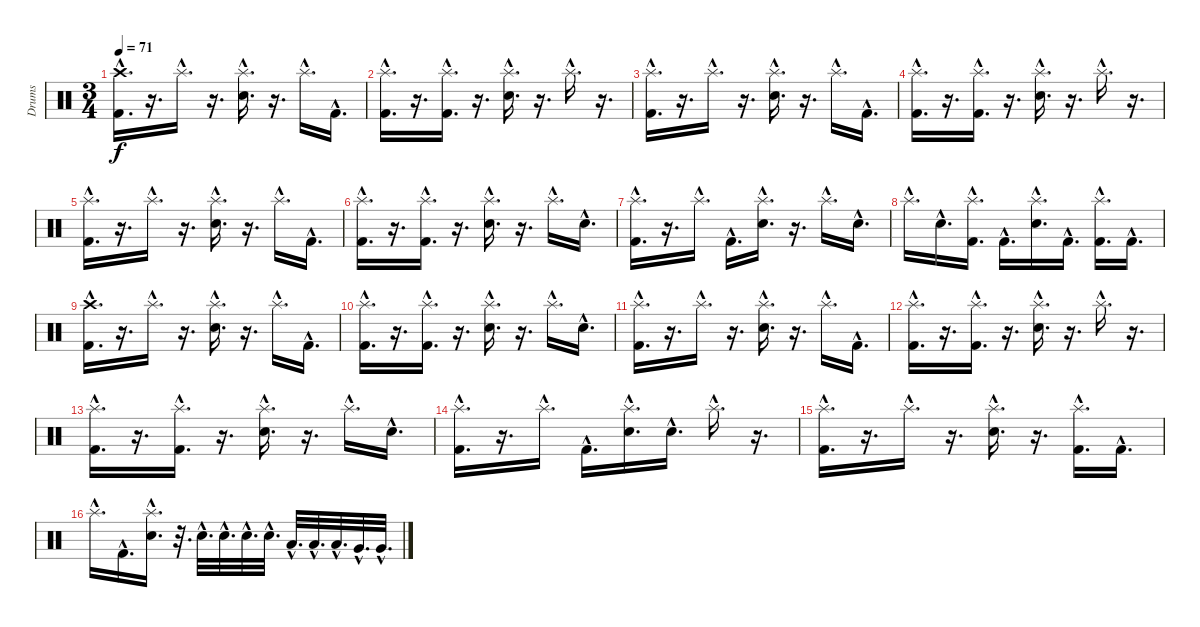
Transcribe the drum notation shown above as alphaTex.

\track ("Drums" "Drums") {instrument percussion}
\staff {score}
\articulation defaults
\ts (3 4)
\tempo 71
\clef neutral
\ks c
("Crash high (hit)"{hac} "Kick (hit) 2"{hac}).16{d dy f} r.16{d} "Splash (hit)"{hac}.16{d} r.16{d} ("Splash (hit)"{hac} "Snare (hit) 2"{hac}).16{d} r.16{d} "Splash (hit)"{hac}.16{d} "Kick (hit) 2"{hac}.16{d} |
("Splash (hit)"{hac} "Kick (hit) 2"{hac}).16{d} r.16{d} ("Splash (hit)"{hac} "Kick (hit) 2"{hac}).16{d} r.16{d} ("Splash (hit)"{hac} "Snare (hit) 2"{hac}).16{d} r.16{d} "Splash (hit)"{hac}.16{d} r.16{d} |
("Splash (hit)"{hac} "Kick (hit) 2"{hac}).16{d} r.16{d} "Splash (hit)"{hac}.16{d} r.16{d} ("Splash (hit)"{hac} "Snare (hit) 2"{hac}).16{d} r.16{d} "Splash (hit)"{hac}.16{d} "Kick (hit) 2"{hac}.16{d} |
("Splash (hit)"{hac} "Kick (hit) 2"{hac}).16{d} r.16{d} ("Splash (hit)"{hac} "Kick (hit) 2"{hac}).16{d} r.16{d} ("Splash (hit)"{hac} "Snare (hit) 2"{hac}).16{d} r.16{d} "Splash (hit)"{hac}.16{d} r.16{d} |
("Splash (hit)"{hac} "Kick (hit) 2"{hac}).16{d} r.16{d} "Splash (hit)"{hac}.16{d} r.16{d} ("Splash (hit)"{hac} "Snare (hit) 2"{hac}).16{d} r.16{d} "Splash (hit)"{hac}.16{d} "Kick (hit) 2"{hac}.16{d} |
("Splash (hit)"{hac} "Kick (hit) 2"{hac}).16{d} r.16{d} ("Splash (hit)"{hac} "Kick (hit) 2"{hac}).16{d} r.16{d} ("Splash (hit)"{hac} "Snare (hit) 2"{hac}).16{d} r.16{d} "Splash (hit)"{hac}.16{d} "Snare (hit) 2"{hac}.16{d} |
("Splash (hit)"{hac} "Kick (hit) 2"{hac}).16{d} r.16{d} "Splash (hit)"{hac}.16{d} "Kick (hit) 2"{hac}.16{d} ("Splash (hit)"{hac} "Snare (hit) 2"{hac}).16{d} r.16{d} "Splash (hit)"{hac}.16{d} "Snare (hit) 2"{hac}.16{d} |
"Splash (hit)"{hac}.16{d} "Snare (hit) 2"{hac}.16{d} ("Splash (hit)"{hac} "Kick (hit) 2"{hac}).16{d} "Kick (hit) 2"{hac}.16{d} ("Splash (hit)"{hac} "Snare (hit) 2"{hac}).16{d} "Kick (hit) 2"{hac}.16{d} ("Splash (hit)"{hac} "Kick (hit) 2"{hac}).16{d} "Kick (hit) 2"{hac}.16{d} |
("Crash high (hit)"{hac} "Kick (hit) 2"{hac}).16{d} r.16{d} "Splash (hit)"{hac}.16{d} r.16{d} ("Splash (hit)"{hac} "Snare (hit) 2"{hac}).16{d} r.16{d} "Splash (hit)"{hac}.16{d} "Kick (hit) 2"{hac}.16{d} |
("Splash (hit)"{hac} "Kick (hit) 2"{hac}).16{d} r.16{d} ("Splash (hit)"{hac} "Kick (hit) 2"{hac}).16{d} r.16{d} ("Splash (hit)"{hac} "Snare (hit) 2"{hac}).16{d} r.16{d} "Splash (hit)"{hac}.16{d} "Snare (hit) 2"{hac}.16{d} |
("Splash (hit)"{hac} "Kick (hit) 2"{hac}).16{d} r.16{d} "Splash (hit)"{hac}.16{d} r.16{d} ("Splash (hit)"{hac} "Snare (hit) 2"{hac}).16{d} r.16{d} "Splash (hit)"{hac}.16{d} "Kick (hit) 2"{hac}.16{d} |
("Splash (hit)"{hac} "Kick (hit) 2"{hac}).16{d} r.16{d} ("Splash (hit)"{hac} "Kick (hit) 2"{hac}).16{d} r.16{d} ("Splash (hit)"{hac} "Snare (hit) 2"{hac}).16{d} r.16{d} "Splash (hit)"{hac}.16{d} r.16{d} |
("Splash (hit)"{hac} "Kick (hit) 2"{hac}).16{d} r.16{d} ("Splash (hit)"{hac} "Kick (hit) 2"{hac}).16{d} r.16{d} ("Splash (hit)"{hac} "Snare (hit) 2"{hac}).16{d} r.16{d} "Splash (hit)"{hac}.16{d} "Snare (hit) 2"{hac}.16{d} |
("Splash (hit)"{hac} "Kick (hit) 2"{hac}).16{d} r.16{d} "Splash (hit)"{hac}.16{d} "Kick (hit) 2"{hac}.16{d} ("Splash (hit)"{hac} "Snare (hit) 2"{hac}).16{d} "Snare (hit) 2"{hac}.16{d} "Splash (hit)"{hac}.16{d} r.16{d} |
("Splash (hit)"{hac} "Kick (hit) 2"{hac}).16{d} r.16{d} "Splash (hit)"{hac}.16{d} r.16{d} ("Splash (hit)"{hac} "Snare (hit) 2"{hac}).16{d} r.16{d} ("Splash (hit)"{hac} "Kick (hit) 2"{hac}).16{d} "Kick (hit) 2"{hac}.16{d} |
"Splash (hit)"{hac}.16{d} "Kick (hit) 2"{hac}.16{d} ("Splash (hit)"{hac} "Snare (hit) 2"{hac}).16{d} r.32{d} "Snare (hit) 2"{hac}.32{d} "Snare (hit) 2"{hac}.32{d} "Snare (hit) 2"{hac}.32{d} "Snare (hit) 2"{hac}.32{d} "Low Tom (hit)"{hac}.32{d} "Low Tom (hit)"{hac}.32{d} "Low Tom (hit)"{hac}.32{d} "Very Low Tom (hit)"{hac}.32{d} "Very Low Tom (hit)"{hac}.32{d}
